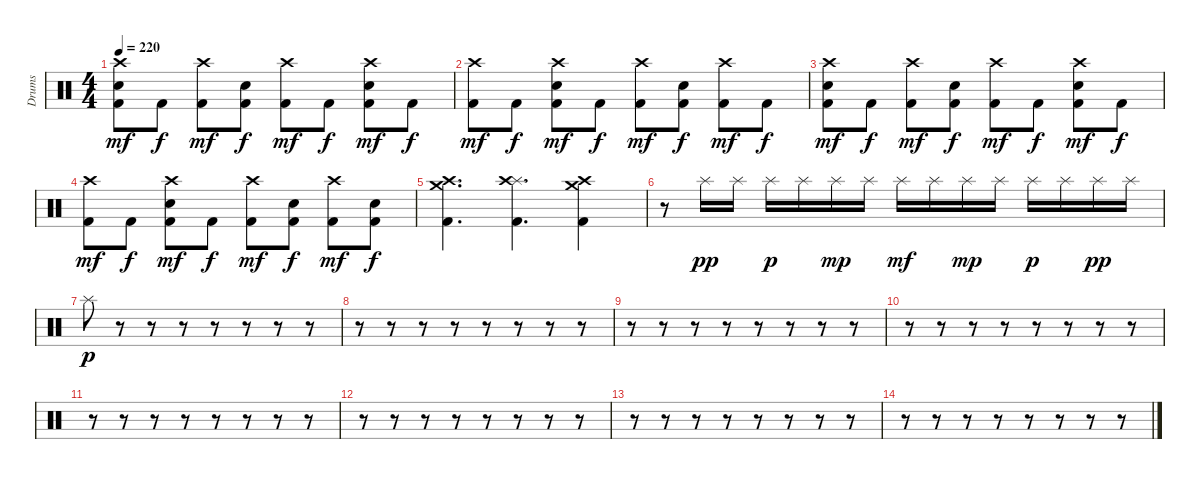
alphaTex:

\bracketExtendMode groupsimilarinstruments
\otherSystemsTrackNameOrientation horizontal
\track ("Drumkit" "Drums") {instrument percussion}
\staff {score}
\articulation defaults
\ts (4 4)
\tempo 220
\clef neutral
\ks c
("Crash high (hit)" "Snare (hit) 2" "Kick (hit) 2").8{dy mf beam Down} "Kick (hit) 2".8{dy f beam Down} ("Crash high (hit)" "Kick (hit) 2").8{dy mf beam Down} ("Snare (hit) 2" "Kick (hit) 2").8{dy f beam Down} ("Crash high (hit)" "Kick (hit) 2").8{dy mf beam Down} "Kick (hit) 2".8{dy f beam Down} ("Crash high (hit)" "Snare (hit) 2" "Kick (hit) 2").8{dy mf beam Down} "Kick (hit) 2".8{dy f beam Down} |
("Crash high (hit)" "Kick (hit) 2").8{dy mf beam Down} "Kick (hit) 2".8{dy f beam Down} ("Crash high (hit)" "Snare (hit) 2" "Kick (hit) 2").8{dy mf beam Down} "Kick (hit) 2".8{dy f beam Down} ("Crash high (hit)" "Kick (hit) 2").8{dy mf beam Down} ("Snare (hit) 2" "Kick (hit) 2").8{dy f beam Down} ("Crash high (hit)" "Kick (hit) 2").8{dy mf beam Down} "Kick (hit) 2".8{dy f beam Down} |
("Crash high (hit)" "Snare (hit) 2" "Kick (hit) 2").8{dy mf beam Down} "Kick (hit) 2".8{dy f beam Down} ("Crash high (hit)" "Kick (hit) 2").8{dy mf beam Down} ("Snare (hit) 2" "Kick (hit) 2").8{dy f beam Down} ("Crash high (hit)" "Kick (hit) 2").8{dy mf beam Down} "Kick (hit) 2".8{dy f beam Down} ("Crash high (hit)" "Snare (hit) 2" "Kick (hit) 2").8{dy mf beam Down} "Kick (hit) 2".8{dy f beam Down} |
("Crash high (hit)" "Kick (hit) 2").8{dy mf beam Down} "Kick (hit) 2".8{dy f beam Down} ("Crash high (hit)" "Snare (hit) 2" "Kick (hit) 2").8{dy mf beam Down} "Kick (hit) 2".8{dy f beam Down} ("Crash high (hit)" "Kick (hit) 2").8{dy mf beam Down} ("Snare (hit) 2" "Kick (hit) 2").8{dy f beam Down} ("Crash high (hit)" "Kick (hit) 2").8{dy mf beam Down} ("Snare (hit) 2" "Kick (hit) 2").8{dy f beam Down} |
("Crash medium (hit)" "Crash high (hit)" "Kick (hit) 2").4{d beam Down} ("Splash (hit)" "Crash high (hit)" "Kick (hit) 2").4{d beam Down} ("Crash medium (hit)" "Crash high (hit)" "Kick (hit) 2").4{beam Down} |
r.8{beam Down} "Splash (hit)".16{dy pp beam Down} "Splash (hit)".16{beam Down} "Splash (hit)".16{dy p beam Down} "Splash (hit)".16{beam Down} "Splash (hit)".16{dy mp beam Down} "Splash (hit)".16{beam Down} "Splash (hit)".16{dy mf beam Down} "Splash (hit)".16{beam Down} "Splash (hit)".16{dy mp beam Down} "Splash (hit)".16{beam Down} "Splash (hit)".16{dy p beam Down} "Splash (hit)".16{beam Down} "Splash (hit)".16{dy pp beam Down} "Splash (hit)".16{beam Down} |
"Splash (hit)".8{dy p beam Down} r.8{beam Down} r.8{beam Down} r.8{beam Down} r.8{beam Down} r.8{beam Down} r.8{beam Down} r.8{beam Down} |
r.8{beam Down} r.8{beam Down} r.8{beam Down} r.8{beam Down} r.8{beam Down} r.8{beam Down} r.8{beam Down} r.8{beam Down} |
r.8{beam Down} r.8{beam Down} r.8{beam Down} r.8{beam Down} r.8{beam Down} r.8{beam Down} r.8{beam Down} r.8{beam Down} |
r.8{beam Down} r.8{beam Down} r.8{beam Down} r.8{beam Down} r.8{beam Down} r.8{beam Down} r.8{beam Down} r.8{beam Down} |
r.8{beam Down} r.8{beam Down} r.8{beam Down} r.8{beam Down} r.8{beam Down} r.8{beam Down} r.8{beam Down} r.8{beam Down} |
r.8{beam Down} r.8{beam Down} r.8{beam Down} r.8{beam Down} r.8{beam Down} r.8{beam Down} r.8{beam Down} r.8{beam Down} |
r.8{beam Down} r.8{beam Down} r.8{beam Down} r.8{beam Down} r.8{beam Down} r.8{beam Down} r.8{beam Down} r.8{beam Down} |
r.8{beam Down} r.8{beam Down} r.8{beam Down} r.8{beam Down} r.8{beam Down} r.8{beam Down} r.8{beam Down} r.8{beam Down}
